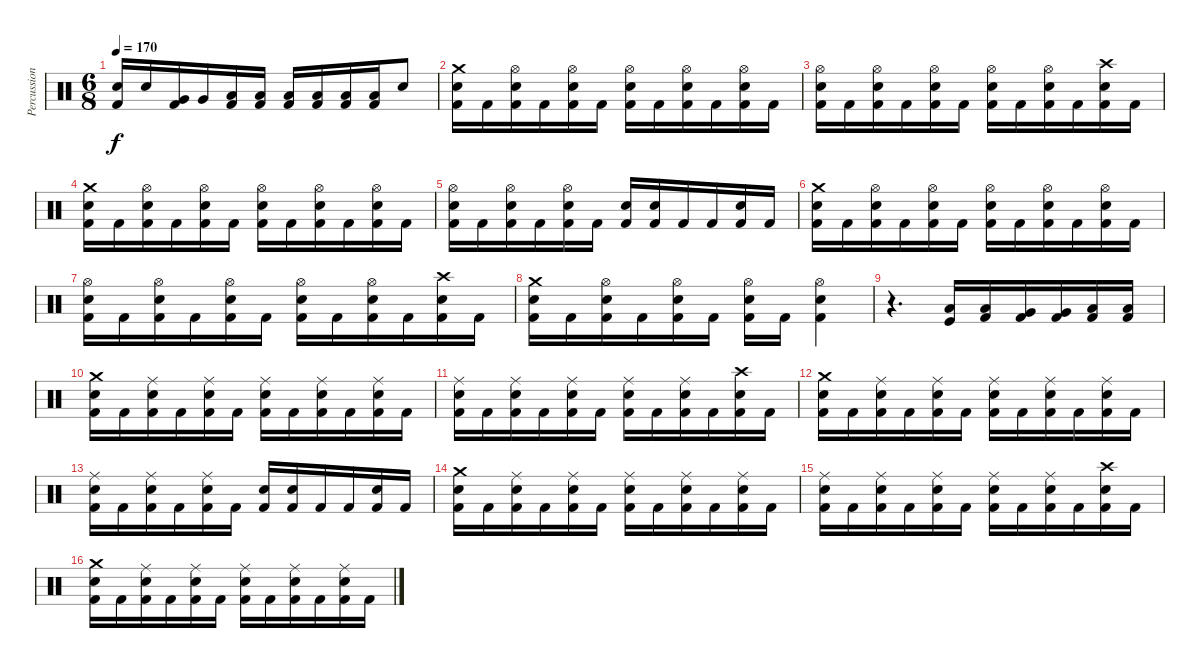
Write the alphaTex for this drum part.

\track ("Percussions" "Percussion") {instrument percussion}
\staff {score}
\articulation defaults
\ts (6 8)
\tempo 170
\clef neutral
\ks c
("Electric Snare (hit)" "Kick (hit) 2").16{dy f} "Electric Snare (hit)".16 ("Very Low Tom (hit)" "Kick (hit) 2").16 "Very Low Tom (hit)".16 ("Low Floor Tom (hit)" "Kick (hit) 2").16 ("Low Floor Tom (hit)" "Kick (hit) 2").16 ("Low Floor Tom (hit)" "Kick (hit) 2").16 ("Low Floor Tom (hit)" "Kick (hit) 2").16 ("Low Floor Tom (hit)" "Kick (hit) 2").16 ("Low Floor Tom (hit)" "Kick (hit) 2").16 "Electric Snare (hit)".8 |
("Crash medium (hit)" "Electric Snare (hit)" "Kick (hit) 2").16 "Kick (hit) 2".16 ("Hi-Hat (open)" "Electric Snare (hit)" "Kick (hit) 2").16 "Kick (hit) 2".16 ("Hi-Hat (open)" "Electric Snare (hit)" "Kick (hit) 2").16 "Kick (hit) 2".16 ("Hi-Hat (open)" "Electric Snare (hit)" "Kick (hit) 2").16 "Kick (hit) 2".16 ("Hi-Hat (open)" "Electric Snare (hit)" "Kick (hit) 2").16 "Kick (hit) 2".16 ("Hi-Hat (open)" "Electric Snare (hit)" "Kick (hit) 2").16 "Kick (hit) 2".16 |
("Hi-Hat (open)" "Electric Snare (hit)" "Kick (hit) 2").16 "Kick (hit) 2".16 ("Hi-Hat (open)" "Electric Snare (hit)" "Kick (hit) 2").16 "Kick (hit) 2".16 ("Hi-Hat (open)" "Electric Snare (hit)" "Kick (hit) 2").16 "Kick (hit) 2".16 ("Hi-Hat (open)" "Electric Snare (hit)" "Kick (hit) 2").16 "Kick (hit) 2".16 ("Hi-Hat (open)" "Electric Snare (hit)" "Kick (hit) 2").16 "Kick (hit) 2".16 ("Crash high (hit)" "Electric Snare (hit)" "Kick (hit) 2").16 "Kick (hit) 2".16 |
("Crash medium (hit)" "Electric Snare (hit)" "Kick (hit) 2").16 "Kick (hit) 2".16 ("Hi-Hat (open)" "Electric Snare (hit)" "Kick (hit) 2").16 "Kick (hit) 2".16 ("Hi-Hat (open)" "Electric Snare (hit)" "Kick (hit) 2").16 "Kick (hit) 2".16 ("Hi-Hat (open)" "Electric Snare (hit)" "Kick (hit) 2").16 "Kick (hit) 2".16 ("Hi-Hat (open)" "Electric Snare (hit)" "Kick (hit) 2").16 "Kick (hit) 2".16 ("Hi-Hat (open)" "Electric Snare (hit)" "Kick (hit) 2").16 "Kick (hit) 2".16 |
("Hi-Hat (open)" "Electric Snare (hit)" "Kick (hit) 2").16 "Kick (hit) 2".16 ("Hi-Hat (open)" "Electric Snare (hit)" "Kick (hit) 2").16 "Kick (hit) 2".16 ("Hi-Hat (open)" "Electric Snare (hit)" "Kick (hit) 2").16 "Kick (hit) 2".16 ("Electric Snare (hit)" "Kick (hit) 2").16 ("Electric Snare (hit)" "Kick (hit) 2").16 "Kick (hit) 2".16 "Kick (hit) 2".16 ("Electric Snare (hit)" "Kick (hit) 2").16 "Kick (hit) 2".16 |
("Crash medium (hit)" "Electric Snare (hit)" "Kick (hit) 2").16 "Kick (hit) 2".16 ("Hi-Hat (open)" "Electric Snare (hit)" "Kick (hit) 2").16 "Kick (hit) 2".16 ("Hi-Hat (open)" "Electric Snare (hit)" "Kick (hit) 2").16 "Kick (hit) 2".16 ("Hi-Hat (open)" "Electric Snare (hit)" "Kick (hit) 2").16 "Kick (hit) 2".16 ("Hi-Hat (open)" "Electric Snare (hit)" "Kick (hit) 2").16 "Kick (hit) 2".16 ("Hi-Hat (open)" "Electric Snare (hit)" "Kick (hit) 2").16 "Kick (hit) 2".16 |
("Hi-Hat (open)" "Electric Snare (hit)" "Kick (hit) 2").16 "Kick (hit) 2".16 ("Hi-Hat (open)" "Electric Snare (hit)" "Kick (hit) 2").16 "Kick (hit) 2".16 ("Hi-Hat (open)" "Electric Snare (hit)" "Kick (hit) 2").16 "Kick (hit) 2".16 ("Hi-Hat (open)" "Electric Snare (hit)" "Kick (hit) 2").16 "Kick (hit) 2".16 ("Hi-Hat (open)" "Electric Snare (hit)" "Kick (hit) 2").16 "Kick (hit) 2".16 ("Crash high (hit)" "Electric Snare (hit)" "Kick (hit) 2").16 "Kick (hit) 2".16 |
("Crash medium (hit)" "Electric Snare (hit)" "Kick (hit) 2").16 "Kick (hit) 2".16 ("Hi-Hat (open)" "Electric Snare (hit)" "Kick (hit) 2").16 "Kick (hit) 2".16 ("Hi-Hat (open)" "Electric Snare (hit)" "Kick (hit) 2").16 "Kick (hit) 2".16 ("Hi-Hat (open)" "Electric Snare (hit)" "Kick (hit) 2").16 "Kick (hit) 2".16 ("Hi-Hat (open)" "Electric Snare (hit)" "Kick (hit) 2").4 |
r.4{d} ("Low Tom (hit)" "Kick (hit)").16 ("Low Tom (hit)" "Kick (hit) 2").16 ("Very Low Tom (hit)" "Kick (hit) 2").16 ("Very Low Tom (hit)" "Kick (hit) 2").16 ("Low Floor Tom (hit)" "Kick (hit) 2").16 ("Low Floor Tom (hit)" "Kick (hit) 2").16 |
("Crash medium (hit)" "Electric Snare (hit)" "Kick (hit) 2").16 "Kick (hit) 2".16 ("Ride (middle)" "Electric Snare (hit)" "Kick (hit) 2").16 "Kick (hit) 2".16 ("Ride (middle)" "Electric Snare (hit)" "Kick (hit) 2").16 "Kick (hit) 2".16 ("Ride (middle)" "Electric Snare (hit)" "Kick (hit) 2").16 "Kick (hit) 2".16 ("Ride (middle)" "Electric Snare (hit)" "Kick (hit) 2").16 "Kick (hit) 2".16 ("Ride (middle)" "Electric Snare (hit)" "Kick (hit) 2").16 "Kick (hit) 2".16 |
("Ride (middle)" "Electric Snare (hit)" "Kick (hit) 2").16 "Kick (hit) 2".16 ("Ride (middle)" "Electric Snare (hit)" "Kick (hit) 2").16 "Kick (hit) 2".16 ("Ride (middle)" "Electric Snare (hit)" "Kick (hit) 2").16 "Kick (hit) 2".16 ("Ride (middle)" "Electric Snare (hit)" "Kick (hit) 2").16 "Kick (hit) 2".16 ("Ride (middle)" "Electric Snare (hit)" "Kick (hit) 2").16 "Kick (hit) 2".16 ("Crash high (hit)" "Electric Snare (hit)" "Kick (hit) 2").16 "Kick (hit) 2".16 |
("Crash medium (hit)" "Electric Snare (hit)" "Kick (hit) 2").16 "Kick (hit) 2".16 ("Ride (middle)" "Electric Snare (hit)" "Kick (hit) 2").16 "Kick (hit) 2".16 ("Ride (middle)" "Electric Snare (hit)" "Kick (hit) 2").16 "Kick (hit) 2".16 ("Ride (middle)" "Electric Snare (hit)" "Kick (hit) 2").16 "Kick (hit) 2".16 ("Ride (middle)" "Electric Snare (hit)" "Kick (hit) 2").16 "Kick (hit) 2".16 ("Ride (middle)" "Electric Snare (hit)" "Kick (hit) 2").16 "Kick (hit) 2".16 |
("Ride (middle)" "Electric Snare (hit)" "Kick (hit) 2").16 "Kick (hit) 2".16 ("Ride (middle)" "Electric Snare (hit)" "Kick (hit) 2").16 "Kick (hit) 2".16 ("Ride (middle)" "Electric Snare (hit)" "Kick (hit) 2").16 "Kick (hit) 2".16 ("Electric Snare (hit)" "Kick (hit) 2").16 ("Electric Snare (hit)" "Kick (hit) 2").16 "Kick (hit) 2".16 "Kick (hit) 2".16 ("Electric Snare (hit)" "Kick (hit) 2").16 "Kick (hit) 2".16 |
("Crash medium (hit)" "Electric Snare (hit)" "Kick (hit) 2").16 "Kick (hit) 2".16 ("Ride (middle)" "Electric Snare (hit)" "Kick (hit) 2").16 "Kick (hit) 2".16 ("Ride (middle)" "Electric Snare (hit)" "Kick (hit) 2").16 "Kick (hit) 2".16 ("Ride (middle)" "Electric Snare (hit)" "Kick (hit) 2").16 "Kick (hit) 2".16 ("Ride (middle)" "Electric Snare (hit)" "Kick (hit) 2").16 "Kick (hit) 2".16 ("Ride (middle)" "Electric Snare (hit)" "Kick (hit) 2").16 "Kick (hit) 2".16 |
("Ride (middle)" "Electric Snare (hit)" "Kick (hit) 2").16 "Kick (hit) 2".16 ("Ride (middle)" "Electric Snare (hit)" "Kick (hit) 2").16 "Kick (hit) 2".16 ("Ride (middle)" "Electric Snare (hit)" "Kick (hit) 2").16 "Kick (hit) 2".16 ("Ride (middle)" "Electric Snare (hit)" "Kick (hit) 2").16 "Kick (hit) 2".16 ("Ride (middle)" "Electric Snare (hit)" "Kick (hit) 2").16 "Kick (hit) 2".16 ("Crash high (hit)" "Electric Snare (hit)" "Kick (hit) 2").16 "Kick (hit) 2".16 |
("Crash medium (hit)" "Electric Snare (hit)" "Kick (hit) 2").16 "Kick (hit) 2".16 ("Ride (middle)" "Electric Snare (hit)" "Kick (hit) 2").16 "Kick (hit) 2".16 ("Ride (middle)" "Electric Snare (hit)" "Kick (hit) 2").16 "Kick (hit) 2".16 ("Ride (middle)" "Electric Snare (hit)" "Kick (hit) 2").16 "Kick (hit) 2".16 ("Ride (middle)" "Electric Snare (hit)" "Kick (hit) 2").16 "Kick (hit) 2".16 ("Ride (middle)" "Electric Snare (hit)" "Kick (hit) 2").16 "Kick (hit) 2".16
